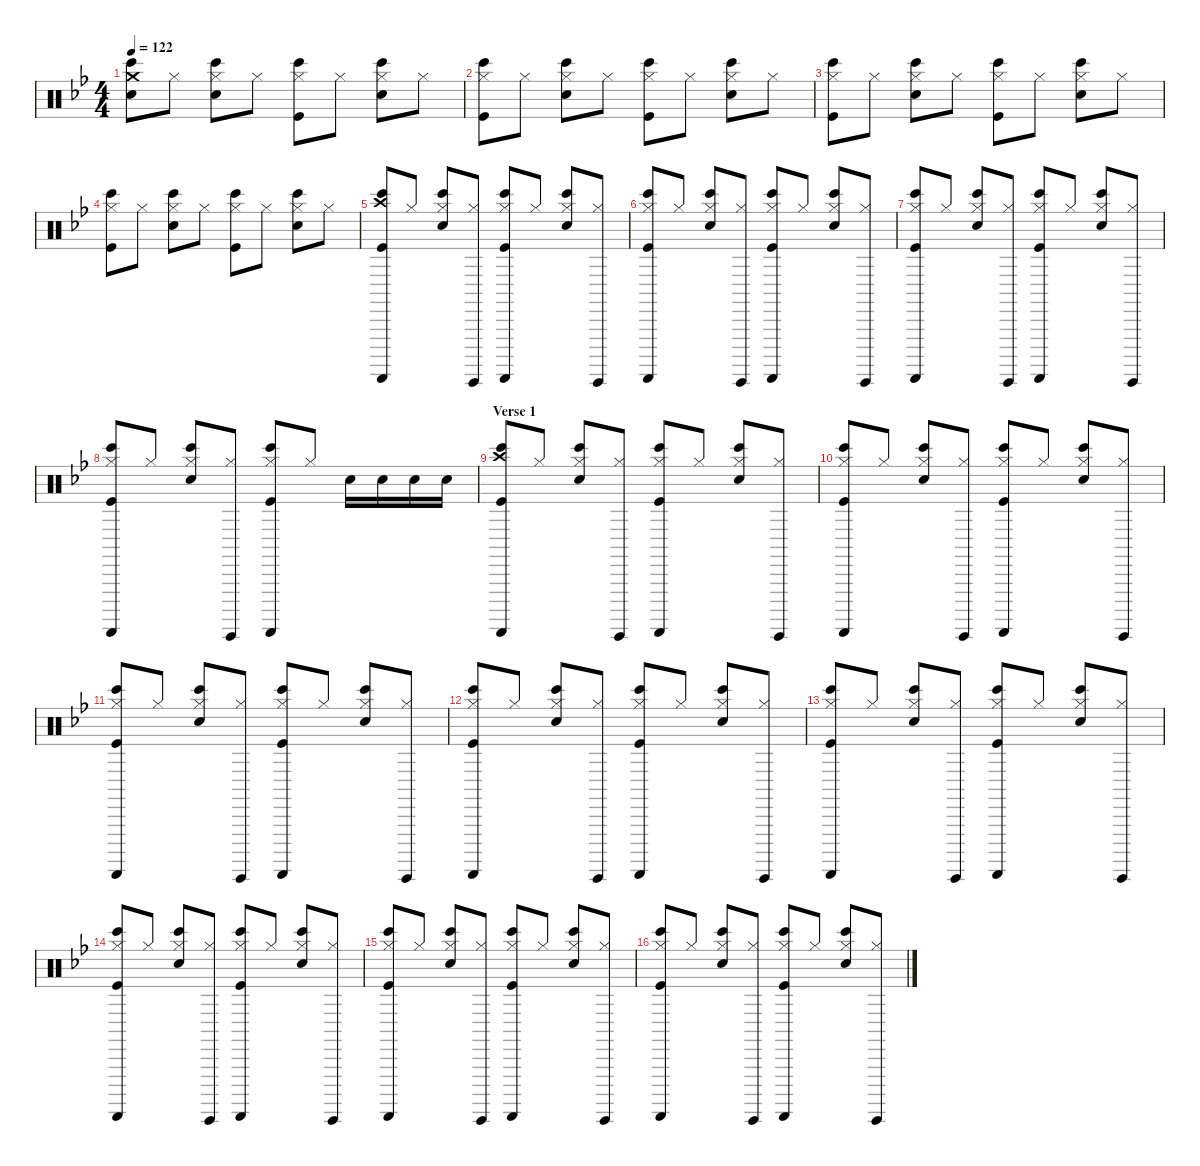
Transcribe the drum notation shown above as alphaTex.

\defaultSystemsLayout 4
\hideDynamics
\bracketExtendMode nobrackets
\singleTrackTrackNamePolicy hidden
\multiTrackTrackNamePolicy hidden
\firstSystemTrackNameMode fullname
\firstSystemTrackNameOrientation horizontal
\otherSystemsTrackNameOrientation horizontal
\track ("Percussions" "drm.") {instrument percussion}
\staff {score}
\articulation defaults
\ts (4 4)
\tempo 122
\clef neutral
\ks bb
("Crash medium (hit)"{acc forcenatural} "Bongo High (hit)"{acc forcenatural} "Snare (hit) 2"{acc forcenatural}).8{dy f beam Down} "Hi-Hat (closed)"{acc forcenatural}.8{dy mp beam Down} ("Hi-Hat (closed)"{acc forcenatural} "Bongo High (hit)"{acc forcenatural} "Snare (hit) 2"{acc forcenatural}).8{dy f beam Down} "Hi-Hat (closed)"{acc forcenatural}.8{dy mp beam Down} ("Hi-Hat (closed)"{acc forcenatural} "Bongo High (hit)"{acc forcenatural} "Kick (hit)"{acc forcenatural}).8{dy f beam Down} "Hi-Hat (closed)"{acc forcenatural}.8{dy mp beam Down} ("Hi-Hat (closed)"{acc forcenatural} "Bongo High (hit)"{acc forcenatural} "Snare (hit) 2"{acc forcenatural}).8{dy f beam Down} "Hi-Hat (closed)"{acc forcenatural}.8{dy mp beam Down} |
("Hi-Hat (closed)"{acc forcenatural} "Bongo High (hit)"{acc forcenatural} "Kick (hit)"{acc forcenatural}).8{dy f beam Down} "Hi-Hat (closed)"{acc forcenatural}.8{dy mp beam Down} ("Hi-Hat (closed)"{acc forcenatural} "Bongo High (hit)"{acc forcenatural} "Snare (hit) 2"{acc forcenatural}).8{dy f beam Down} "Hi-Hat (closed)"{acc forcenatural}.8{dy mp beam Down} ("Hi-Hat (closed)"{acc forcenatural} "Bongo High (hit)"{acc forcenatural} "Kick (hit)"{acc forcenatural}).8{dy f beam Down} "Hi-Hat (closed)"{acc forcenatural}.8{dy mp beam Down} ("Hi-Hat (closed)"{acc forcenatural} "Bongo High (hit)"{acc forcenatural} "Snare (hit) 2"{acc forcenatural}).8{dy f beam Down} "Hi-Hat (closed)"{acc forcenatural}.8{dy mp beam Down} |
("Hi-Hat (closed)"{acc forcenatural} "Bongo High (hit)"{acc forcenatural} "Kick (hit)"{acc forcenatural}).8{dy f beam Down} "Hi-Hat (closed)"{acc forcenatural}.8{dy mp beam Down} ("Hi-Hat (closed)"{acc forcenatural} "Bongo High (hit)"{acc forcenatural} "Snare (hit) 2"{acc forcenatural}).8{dy f beam Down} "Hi-Hat (closed)"{acc forcenatural}.8{dy mp beam Down} ("Hi-Hat (closed)"{acc forcenatural} "Bongo High (hit)"{acc forcenatural} "Kick (hit)"{acc forcenatural}).8{dy f beam Down} "Hi-Hat (closed)"{acc forcenatural}.8{dy mp beam Down} ("Hi-Hat (closed)"{acc forcenatural} "Bongo High (hit)"{acc forcenatural} "Snare (hit) 2"{acc forcenatural}).8{dy f beam Down} "Hi-Hat (closed)"{acc forcenatural}.8{dy mp beam Down} |
("Hi-Hat (closed)"{acc forcenatural} "Bongo High (hit)"{acc forcenatural} "Kick (hit)"{acc forcenatural}).8{dy f beam Down} "Hi-Hat (closed)"{acc forcenatural}.8{dy mp beam Down} ("Hi-Hat (closed)"{acc forcenatural} "Bongo High (hit)"{acc forcenatural} "Snare (hit) 2"{acc forcenatural}).8{dy f beam Down} "Hi-Hat (closed)"{acc forcenatural}.8{dy mp beam Down} ("Hi-Hat (closed)"{acc forcenatural} "Bongo High (hit)"{acc forcenatural} "Kick (hit)"{acc forcenatural}).8{dy f beam Down} "Hi-Hat (closed)"{acc forcenatural}.8{dy mp beam Down} ("Hi-Hat (closed)"{acc forcenatural} "Bongo High (hit)"{acc forcenatural} "Snare (hit) 2"{acc forcenatural}).8{dy f beam Down} "Hi-Hat (closed)"{acc forcenatural}.8{dy mp beam Down} |
("Crash high (hit)"{acc forcenatural} "Bongo High (hit)"{acc forcenatural} "Guiro (scrap-return)"{acc forcenatural} "Kick (hit)"{acc forcenatural}).8{dy f beam Up} "Hi-Hat (closed)"{acc forcenatural}.8{dy mp beam Up} ("Hi-Hat (closed)"{acc forcenatural} "Bongo High (hit)"{acc forcenatural} "Snare (hit) 2"{acc forcenatural}).8{dy f beam Up} ("Hi-Hat (closed)"{acc forcenatural} "Guiro (hit)"{acc forcenatural}).8{dy mp beam Up} ("Hi-Hat (closed)"{acc forcenatural} "Bongo High (hit)"{acc forcenatural} "Guiro (scrap-return)"{acc forcenatural} "Kick (hit)"{acc forcenatural}).8{dy f beam Up} "Hi-Hat (closed)"{acc forcenatural}.8{dy mp beam Up} ("Hi-Hat (closed)"{acc forcenatural} "Bongo High (hit)"{acc forcenatural} "Snare (hit) 2"{acc forcenatural}).8{dy f beam Up} ("Hi-Hat (closed)"{acc forcenatural} "Guiro (hit)"{acc forcenatural}).8{dy mp beam Up} |
("Hi-Hat (closed)"{acc forcenatural} "Bongo High (hit)"{acc forcenatural} "Guiro (scrap-return)"{acc forcenatural} "Kick (hit)"{acc forcenatural}).8{dy f beam Up} "Hi-Hat (closed)"{acc forcenatural}.8{dy mp beam Up} ("Hi-Hat (closed)"{acc forcenatural} "Bongo High (hit)"{acc forcenatural} "Snare (hit) 2"{acc forcenatural}).8{dy f beam Up} ("Hi-Hat (closed)"{acc forcenatural} "Guiro (hit)"{acc forcenatural}).8{dy mp beam Up} ("Hi-Hat (closed)"{acc forcenatural} "Bongo High (hit)"{acc forcenatural} "Guiro (scrap-return)"{acc forcenatural} "Kick (hit)"{acc forcenatural}).8{dy f beam Up} "Hi-Hat (closed)"{acc forcenatural}.8{dy mp beam Up} ("Hi-Hat (closed)"{acc forcenatural} "Bongo High (hit)"{acc forcenatural} "Snare (hit) 2"{acc forcenatural}).8{dy f beam Up} ("Hi-Hat (closed)"{acc forcenatural} "Guiro (hit)"{acc forcenatural}).8{dy mp beam Up} |
("Hi-Hat (closed)"{acc forcenatural} "Bongo High (hit)"{acc forcenatural} "Guiro (scrap-return)"{acc forcenatural} "Kick (hit)"{acc forcenatural}).8{dy f beam Up} "Hi-Hat (closed)"{acc forcenatural}.8{dy mp beam Up} ("Hi-Hat (closed)"{acc forcenatural} "Bongo High (hit)"{acc forcenatural} "Snare (hit) 2"{acc forcenatural}).8{dy f beam Up} ("Hi-Hat (closed)"{acc forcenatural} "Guiro (hit)"{acc forcenatural}).8{dy mp beam Up} ("Hi-Hat (closed)"{acc forcenatural} "Bongo High (hit)"{acc forcenatural} "Guiro (scrap-return)"{acc forcenatural} "Kick (hit)"{acc forcenatural}).8{dy f beam Up} "Hi-Hat (closed)"{acc forcenatural}.8{dy mp beam Up} ("Hi-Hat (closed)"{acc forcenatural} "Bongo High (hit)"{acc forcenatural} "Snare (hit) 2"{acc forcenatural}).8{dy f beam Up} ("Hi-Hat (closed)"{acc forcenatural} "Guiro (hit)"{acc forcenatural}).8{dy mp beam Up} |
("Hi-Hat (closed)"{acc forcenatural} "Bongo High (hit)"{acc forcenatural} "Guiro (scrap-return)"{acc forcenatural} "Kick (hit)"{acc forcenatural}).8{dy f beam Up} "Hi-Hat (closed)"{acc forcenatural}.8{dy mp beam Up} ("Hi-Hat (closed)"{acc forcenatural} "Bongo High (hit)"{acc forcenatural} "Snare (hit) 2"{acc forcenatural}).8{dy f beam Up} ("Hi-Hat (closed)"{acc forcenatural} "Guiro (hit)"{acc forcenatural}).8{dy mp beam Up} ("Hi-Hat (closed)"{acc forcenatural} "Bongo High (hit)"{acc forcenatural} "Guiro (scrap-return)"{acc forcenatural} "Kick (hit)"{acc forcenatural}).8{dy f beam Up} "Hi-Hat (closed)"{acc forcenatural}.8{dy mp beam Up} "Snare (hit) 2"{acc forcenatural}.16{dy f beam Down} "Snare (hit) 2"{acc forcenatural}.16{beam Down} "Snare (hit) 2"{acc forcenatural}.16{beam Down} "Snare (hit) 2"{acc forcenatural}.16{beam Down} |
\section ("" "Verse 1")
("Crash high (hit)"{acc forcenatural} "Bongo High (hit)"{acc forcenatural} "Guiro (scrap-return)"{acc forcenatural} "Kick (hit)"{acc forcenatural}).8{beam Up} "Hi-Hat (closed)"{acc forcenatural}.8{dy mp beam Up} ("Hi-Hat (closed)"{acc forcenatural} "Bongo High (hit)"{acc forcenatural} "Snare (hit) 2"{acc forcenatural}).8{dy f beam Up} ("Hi-Hat (closed)"{acc forcenatural} "Guiro (hit)"{acc forcenatural}).8{dy mp beam Up} ("Hi-Hat (closed)"{acc forcenatural} "Bongo High (hit)"{acc forcenatural} "Guiro (scrap-return)"{acc forcenatural} "Kick (hit)"{acc forcenatural}).8{dy f beam Up} "Hi-Hat (closed)"{acc forcenatural}.8{dy mp beam Up} ("Hi-Hat (closed)"{acc forcenatural} "Bongo High (hit)"{acc forcenatural} "Snare (hit) 2"{acc forcenatural}).8{dy f beam Up} ("Hi-Hat (closed)"{acc forcenatural} "Guiro (hit)"{acc forcenatural}).8{dy mp beam Up} |
("Hi-Hat (closed)"{acc forcenatural} "Bongo High (hit)"{acc forcenatural} "Guiro (scrap-return)"{acc forcenatural} "Kick (hit)"{acc forcenatural}).8{dy f beam Up} "Hi-Hat (closed)"{acc forcenatural}.8{dy mp beam Up} ("Hi-Hat (closed)"{acc forcenatural} "Bongo High (hit)"{acc forcenatural} "Snare (hit) 2"{acc forcenatural}).8{dy f beam Up} ("Hi-Hat (closed)"{acc forcenatural} "Guiro (hit)"{acc forcenatural}).8{dy mp beam Up} ("Hi-Hat (closed)"{acc forcenatural} "Bongo High (hit)"{acc forcenatural} "Guiro (scrap-return)"{acc forcenatural} "Kick (hit)"{acc forcenatural}).8{dy f beam Up} "Hi-Hat (closed)"{acc forcenatural}.8{dy mp beam Up} ("Hi-Hat (closed)"{acc forcenatural} "Bongo High (hit)"{acc forcenatural} "Snare (hit) 2"{acc forcenatural}).8{dy f beam Up} ("Hi-Hat (closed)"{acc forcenatural} "Guiro (hit)"{acc forcenatural}).8{dy mp beam Up} |
("Hi-Hat (closed)"{acc forcenatural} "Bongo High (hit)"{acc forcenatural} "Guiro (scrap-return)"{acc forcenatural} "Kick (hit)"{acc forcenatural}).8{dy f beam Up} "Hi-Hat (closed)"{acc forcenatural}.8{dy mp beam Up} ("Hi-Hat (closed)"{acc forcenatural} "Bongo High (hit)"{acc forcenatural} "Snare (hit) 2"{acc forcenatural}).8{dy f beam Up} ("Hi-Hat (closed)"{acc forcenatural} "Guiro (hit)"{acc forcenatural}).8{dy mp beam Up} ("Hi-Hat (closed)"{acc forcenatural} "Bongo High (hit)"{acc forcenatural} "Guiro (scrap-return)"{acc forcenatural} "Kick (hit)"{acc forcenatural}).8{dy f beam Up} "Hi-Hat (closed)"{acc forcenatural}.8{dy mp beam Up} ("Hi-Hat (closed)"{acc forcenatural} "Bongo High (hit)"{acc forcenatural} "Snare (hit) 2"{acc forcenatural}).8{dy f beam Up} ("Hi-Hat (closed)"{acc forcenatural} "Guiro (hit)"{acc forcenatural}).8{dy mp beam Up} |
("Hi-Hat (closed)"{acc forcenatural} "Bongo High (hit)"{acc forcenatural} "Guiro (scrap-return)"{acc forcenatural} "Kick (hit)"{acc forcenatural}).8{dy f beam Up} "Hi-Hat (closed)"{acc forcenatural}.8{dy mp beam Up} ("Hi-Hat (closed)"{acc forcenatural} "Bongo High (hit)"{acc forcenatural} "Snare (hit) 2"{acc forcenatural}).8{dy f beam Up} ("Hi-Hat (closed)"{acc forcenatural} "Guiro (hit)"{acc forcenatural}).8{dy mp beam Up} ("Hi-Hat (closed)"{acc forcenatural} "Bongo High (hit)"{acc forcenatural} "Guiro (scrap-return)"{acc forcenatural} "Kick (hit)"{acc forcenatural}).8{dy f beam Up} "Hi-Hat (closed)"{acc forcenatural}.8{dy mp beam Up} ("Hi-Hat (closed)"{acc forcenatural} "Bongo High (hit)"{acc forcenatural} "Snare (hit) 2"{acc forcenatural}).8{dy f beam Up} ("Hi-Hat (closed)"{acc forcenatural} "Guiro (hit)"{acc forcenatural}).8{dy mp beam Up} |
("Hi-Hat (closed)"{acc forcenatural} "Bongo High (hit)"{acc forcenatural} "Guiro (scrap-return)"{acc forcenatural} "Kick (hit)"{acc forcenatural}).8{dy f beam Up} "Hi-Hat (closed)"{acc forcenatural}.8{dy mp beam Up} ("Hi-Hat (closed)"{acc forcenatural} "Bongo High (hit)"{acc forcenatural} "Snare (hit) 2"{acc forcenatural}).8{dy f beam Up} ("Hi-Hat (closed)"{acc forcenatural} "Guiro (hit)"{acc forcenatural}).8{dy mp beam Up} ("Hi-Hat (closed)"{acc forcenatural} "Bongo High (hit)"{acc forcenatural} "Guiro (scrap-return)"{acc forcenatural} "Kick (hit)"{acc forcenatural}).8{dy f beam Up} "Hi-Hat (closed)"{acc forcenatural}.8{dy mp beam Up} ("Hi-Hat (closed)"{acc forcenatural} "Bongo High (hit)"{acc forcenatural} "Snare (hit) 2"{acc forcenatural}).8{dy f beam Up} ("Hi-Hat (closed)"{acc forcenatural} "Guiro (hit)"{acc forcenatural}).8{dy mp beam Up} |
("Hi-Hat (closed)"{acc forcenatural} "Bongo High (hit)"{acc forcenatural} "Guiro (scrap-return)"{acc forcenatural} "Kick (hit)"{acc forcenatural}).8{dy f beam Up} "Hi-Hat (closed)"{acc forcenatural}.8{dy mp beam Up} ("Hi-Hat (closed)"{acc forcenatural} "Bongo High (hit)"{acc forcenatural} "Snare (hit) 2"{acc forcenatural}).8{dy f beam Up} ("Hi-Hat (closed)"{acc forcenatural} "Guiro (hit)"{acc forcenatural}).8{dy mp beam Up} ("Hi-Hat (closed)"{acc forcenatural} "Bongo High (hit)"{acc forcenatural} "Guiro (scrap-return)"{acc forcenatural} "Kick (hit)"{acc forcenatural}).8{dy f beam Up} "Hi-Hat (closed)"{acc forcenatural}.8{dy mp beam Up} ("Hi-Hat (closed)"{acc forcenatural} "Bongo High (hit)"{acc forcenatural} "Snare (hit) 2"{acc forcenatural}).8{dy f beam Up} ("Hi-Hat (closed)"{acc forcenatural} "Guiro (hit)"{acc forcenatural}).8{dy mp beam Up} |
("Hi-Hat (closed)"{acc forcenatural} "Bongo High (hit)"{acc forcenatural} "Guiro (scrap-return)"{acc forcenatural} "Kick (hit)"{acc forcenatural}).8{dy f beam Up} "Hi-Hat (closed)"{acc forcenatural}.8{dy mp beam Up} ("Hi-Hat (closed)"{acc forcenatural} "Bongo High (hit)"{acc forcenatural} "Snare (hit) 2"{acc forcenatural}).8{dy f beam Up} ("Hi-Hat (closed)"{acc forcenatural} "Guiro (hit)"{acc forcenatural}).8{dy mp beam Up} ("Hi-Hat (closed)"{acc forcenatural} "Bongo High (hit)"{acc forcenatural} "Guiro (scrap-return)"{acc forcenatural} "Kick (hit)"{acc forcenatural}).8{dy f beam Up} "Hi-Hat (closed)"{acc forcenatural}.8{dy mp beam Up} ("Hi-Hat (closed)"{acc forcenatural} "Bongo High (hit)"{acc forcenatural} "Snare (hit) 2"{acc forcenatural}).8{dy f beam Up} ("Hi-Hat (closed)"{acc forcenatural} "Guiro (hit)"{acc forcenatural}).8{dy mp beam Up} |
("Hi-Hat (closed)"{acc forcenatural} "Bongo High (hit)"{acc forcenatural} "Guiro (scrap-return)"{acc forcenatural} "Kick (hit)"{acc forcenatural}).8{dy f beam Up} "Hi-Hat (closed)"{acc forcenatural}.8{dy mp beam Up} ("Hi-Hat (closed)"{acc forcenatural} "Bongo High (hit)"{acc forcenatural} "Snare (hit) 2"{acc forcenatural}).8{dy f beam Up} ("Hi-Hat (closed)"{acc forcenatural} "Guiro (hit)"{acc forcenatural}).8{dy mp beam Up} ("Hi-Hat (closed)"{acc forcenatural} "Bongo High (hit)"{acc forcenatural} "Guiro (scrap-return)"{acc forcenatural} "Kick (hit)"{acc forcenatural}).8{dy f beam Up} "Hi-Hat (closed)"{acc forcenatural}.8{dy mp beam Up} ("Hi-Hat (closed)"{acc forcenatural} "Bongo High (hit)"{acc forcenatural} "Snare (hit) 2"{acc forcenatural}).8{dy f beam Up} ("Hi-Hat (closed)"{acc forcenatural} "Guiro (hit)"{acc forcenatural}).8{dy mp beam Up}
